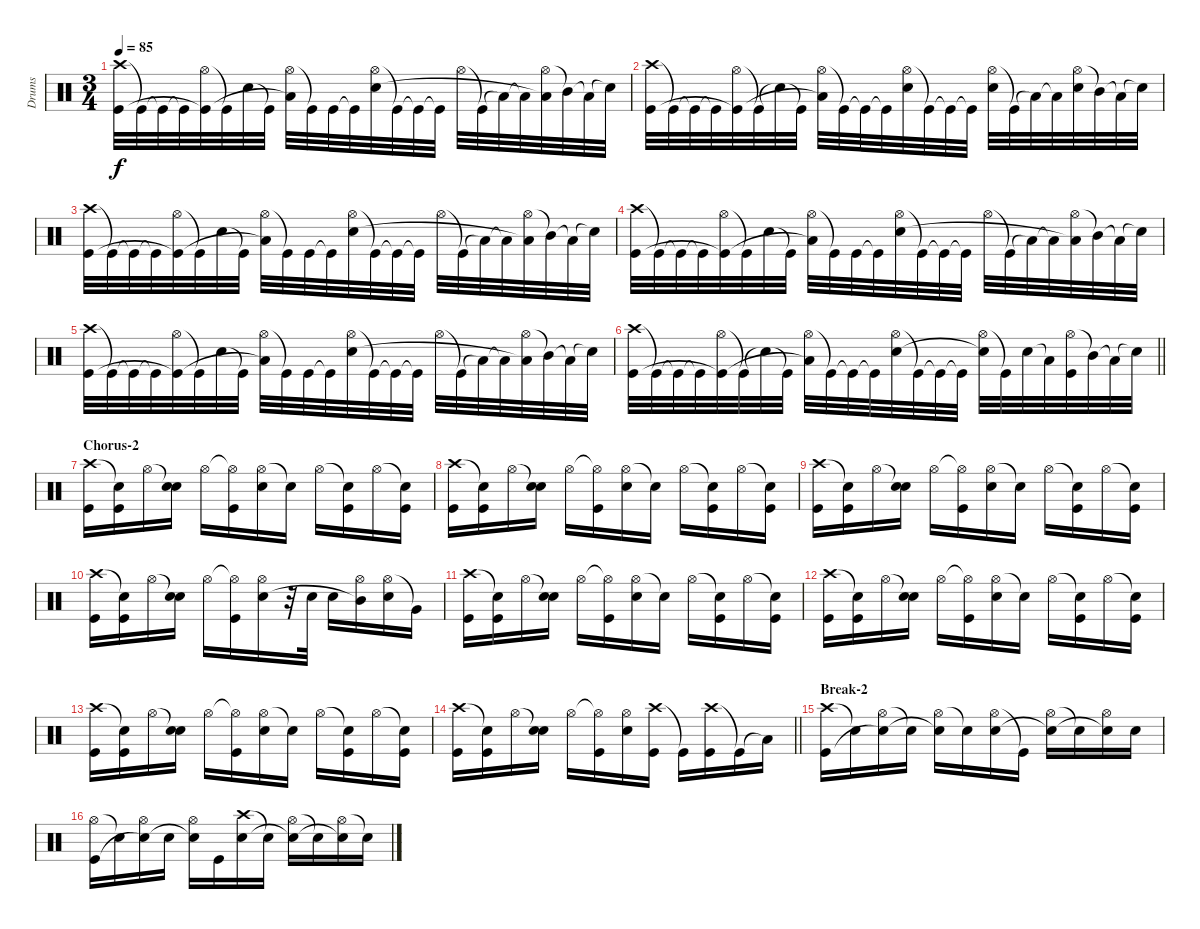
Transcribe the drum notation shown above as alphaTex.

\track ("Drums" "Drums") {instrument percussion}
\staff {score}
\articulation defaults
\ts (3 4)
\tempo 85
\clef neutral
\ks c
("Crash high (hit)" "Kick (hit)").32{dy f} "Kick (hit)"{t}.32 "Kick (hit)"{t}.32 "Kick (hit)"{t}.32 ("Hi-Hat (open)" "Kick (hit)"{t}).32 "Kick (hit)"{t}.32 "Electric Snare (hit)".32 "Kick (hit)"{t}.32 ("Hi-Hat (open)" "Low Floor Tom (hit)"{t}).32 "Kick (hit)"{t}.32 "Kick (hit)".32 "Kick (hit)"{t}.32 ("Hi-Hat (open)" "Electric Snare (hit)").32 "Kick (hit)"{t}.32 "Kick (hit)"{t}.32 "Kick (hit)"{t}.32 "Hi-Hat (open)".32 "Kick (hit)"{t}.32 "Low Floor Tom (hit)"{t}.32 "Low Floor Tom (hit)"{t}.32 ("Hi-Hat (open)" "Low Floor Tom (hit)"{t}).32 "Mid Tom (hit)"{t}.32 "Low Floor Tom (hit)"{t}.32 "Snare (hit)"{t}.32 |
("Crash high (hit)" "Kick (hit)").32 "Kick (hit)"{t}.32 "Kick (hit)"{t}.32 "Kick (hit)"{t}.32 ("Hi-Hat (open)" "Kick (hit)"{t}).32 "Kick (hit)"{t}.32 "Electric Snare (hit)"{t}.32 "Kick (hit)"{t}.32 ("Hi-Hat (open)" "Low Floor Tom (hit)"{t}).32 "Kick (hit)"{t}.32 "Kick (hit)"{t}.32 "Kick (hit)"{t}.32 ("Hi-Hat (open)" "Electric Snare (hit)").32 "Kick (hit)"{t}.32 "Kick (hit)"{t}.32 "Kick (hit)"{t}.32 ("Hi-Hat (open)" "Electric Snare (hit)").32 "Kick (hit)"{t}.32 "Low Floor Tom (hit)"{t}.32 "Low Floor Tom (hit)"{t}.32 ("Hi-Hat (open)" "Electric Snare (hit)").32 "Mid Tom (hit)"{t}.32 "Low Floor Tom (hit)"{t}.32 "Snare (hit)"{t}.32 |
("Crash high (hit)" "Kick (hit)").32 "Kick (hit)"{t}.32 "Kick (hit)"{t}.32 "Kick (hit)"{t}.32 ("Hi-Hat (open)" "Kick (hit)"{t}).32 "Kick (hit)"{t}.32 "Electric Snare (hit)".32 "Kick (hit)"{t}.32 ("Hi-Hat (open)" "Low Floor Tom (hit)"{t}).32 "Kick (hit)"{t}.32 "Kick (hit)".32 "Kick (hit)"{t}.32 ("Hi-Hat (open)" "Electric Snare (hit)").32 "Kick (hit)"{t}.32 "Kick (hit)"{t}.32 "Kick (hit)"{t}.32 "Hi-Hat (open)".32 "Kick (hit)"{t}.32 "Low Floor Tom (hit)"{t}.32 "Low Floor Tom (hit)"{t}.32 ("Hi-Hat (open)" "Low Floor Tom (hit)"{t}).32 "Mid Tom (hit)"{t}.32 "Low Floor Tom (hit)"{t}.32 "Snare (hit)"{t}.32 |
("Crash high (hit)" "Kick (hit)").32 "Kick (hit)"{t}.32 "Kick (hit)"{t}.32 "Kick (hit)"{t}.32 ("Hi-Hat (open)" "Kick (hit)"{t}).32 "Kick (hit)"{t}.32 "Electric Snare (hit)".32 "Kick (hit)"{t}.32 ("Hi-Hat (open)" "Low Floor Tom (hit)"{t}).32 "Kick (hit)"{t}.32 "Kick (hit)".32 "Kick (hit)"{t}.32 ("Hi-Hat (open)" "Electric Snare (hit)").32 "Kick (hit)"{t}.32 "Kick (hit)"{t}.32 "Kick (hit)"{t}.32 "Hi-Hat (open)".32 "Kick (hit)"{t}.32 "Low Floor Tom (hit)"{t}.32 "Low Floor Tom (hit)"{t}.32 ("Hi-Hat (open)" "Low Floor Tom (hit)"{t}).32 "Mid Tom (hit)"{t}.32 "Low Floor Tom (hit)"{t}.32 "Snare (hit)"{t}.32 |
("Crash high (hit)" "Kick (hit)").32 "Kick (hit)"{t}.32 "Kick (hit)"{t}.32 "Kick (hit)"{t}.32 ("Hi-Hat (open)" "Kick (hit)"{t}).32 "Kick (hit)"{t}.32 "Electric Snare (hit)".32 "Kick (hit)"{t}.32 ("Hi-Hat (open)" "Low Floor Tom (hit)"{t}).32 "Kick (hit)"{t}.32 "Kick (hit)".32 "Kick (hit)"{t}.32 ("Hi-Hat (open)" "Electric Snare (hit)").32 "Kick (hit)"{t}.32 "Kick (hit)"{t}.32 "Kick (hit)"{t}.32 "Hi-Hat (open)".32 "Kick (hit)"{t}.32 "Low Floor Tom (hit)"{t}.32 "Low Floor Tom (hit)"{t}.32 ("Hi-Hat (open)" "Low Floor Tom (hit)"{t}).32 "Mid Tom (hit)"{t}.32 "Low Floor Tom (hit)"{t}.32 "Snare (hit)"{t}.32 |
\barLineRight lightlight
("Crash high (hit)" "Kick (hit)").32 "Kick (hit)"{t}.32 "Kick (hit)"{t}.32 "Kick (hit)"{t}.32 ("Hi-Hat (open)" "Kick (hit)"{t}).32 "Kick (hit)"{t}.32 "Electric Snare (hit)"{t}.32 "Kick (hit)"{t}.32 ("Hi-Hat (open)" "Low Floor Tom (hit)"{t}).32 "Kick (hit)"{t}.32 "Kick (hit)"{t}.32 "Kick (hit)"{t}.32 ("Hi-Hat (open)" "Electric Snare (hit)").32 "Kick (hit)"{t}.32 "Kick (hit)"{t}.32 "Kick (hit)"{t}.32 ("Hi-Hat (open)" "Electric Snare (hit)"{t}).32 "Kick (hit)"{t}.32 "Electric Snare (hit)".32 "Low Floor Tom (hit)"{t}.32 ("Hi-Hat (open)" "Kick (hit)").32 "Mid Tom (hit)"{t}.32 "Low Floor Tom (hit)"{t}.32 "Snare (hit)"{t}.32 |
\section ("" "Chorus-2")
("Crash high (hit)" "Kick (hit)").16 ("Snare (hit)"{t} "Kick (hit)").16 "Hi-Hat (open)".16 ("Snare (hit)"{t} "Electric Snare (hit)").16 "Hi-Hat (open)".16 ("Hi-Hat (open)"{t} "Kick (hit)").16 ("Hi-Hat (open)" "Electric Snare (hit)").16 "Snare (hit)"{t}.16 "Hi-Hat (open)".16 ("Snare (hit)"{t} "Kick (hit)").16 "Hi-Hat (open)".16 ("Snare (hit)"{t} "Kick (hit)").16 |
("Crash high (hit)" "Kick (hit)").16 ("Snare (hit)"{t} "Kick (hit)").16 "Hi-Hat (open)".16 ("Snare (hit)"{t} "Electric Snare (hit)").16 "Hi-Hat (open)".16 ("Hi-Hat (open)"{t} "Kick (hit)").16 ("Hi-Hat (open)" "Electric Snare (hit)").16 "Snare (hit)"{t}.16 "Hi-Hat (open)".16 ("Snare (hit)"{t} "Kick (hit)").16 "Hi-Hat (open)".16 ("Snare (hit)"{t} "Kick (hit)").16 |
("Crash high (hit)" "Kick (hit)").16 ("Snare (hit)"{t} "Kick (hit)").16 "Hi-Hat (open)".16 ("Snare (hit)"{t} "Electric Snare (hit)").16 "Hi-Hat (open)".16 ("Hi-Hat (open)"{t} "Kick (hit)").16 ("Hi-Hat (open)" "Electric Snare (hit)").16 "Snare (hit)"{t}.16 "Hi-Hat (open)".16 ("Snare (hit)"{t} "Kick (hit)").16 "Hi-Hat (open)".16 ("Snare (hit)"{t} "Kick (hit)").16 |
("Crash high (hit)" "Kick (hit)").16 ("Snare (hit)"{t} "Kick (hit)").16 "Hi-Hat (open)".16 ("Snare (hit)"{t} "Electric Snare (hit)").16 "Hi-Hat (open)".16 ("Hi-Hat (open)"{t} "Kick (hit)").16 ("Hi-Hat (open)" "Electric Snare (hit)").16 r.32 "Electric Snare (hit)".32 "Electric Snare (hit)".16 ("Hi-Hat (open)" "Mid Tom (hit)"{t}).16 ("Hi-Hat (open)" "Electric Snare (hit)").16 "Very Low Tom (hit)"{t}.16 |
("Crash high (hit)" "Kick (hit)").16 ("Snare (hit)"{t} "Kick (hit)").16 "Hi-Hat (open)".16 ("Snare (hit)"{t} "Electric Snare (hit)").16 "Hi-Hat (open)".16 ("Hi-Hat (open)"{t} "Kick (hit)").16 ("Hi-Hat (open)" "Electric Snare (hit)").16 "Snare (hit)"{t}.16 "Hi-Hat (open)".16 ("Snare (hit)"{t} "Kick (hit)").16 "Hi-Hat (open)".16 ("Snare (hit)"{t} "Kick (hit)").16 |
("Crash high (hit)" "Kick (hit)").16 ("Snare (hit)"{t} "Kick (hit)").16 "Hi-Hat (open)".16 ("Snare (hit)"{t} "Electric Snare (hit)").16 "Hi-Hat (open)".16 ("Hi-Hat (open)"{t} "Kick (hit)").16 ("Hi-Hat (open)" "Electric Snare (hit)").16 "Snare (hit)"{t}.16 "Hi-Hat (open)".16 ("Snare (hit)"{t} "Kick (hit)").16 "Hi-Hat (open)".16 ("Snare (hit)"{t} "Kick (hit)").16 |
("Crash high (hit)" "Kick (hit)").16 ("Snare (hit)"{t} "Kick (hit)").16 "Hi-Hat (open)".16 ("Snare (hit)"{t} "Electric Snare (hit)").16 "Hi-Hat (open)".16 ("Hi-Hat (open)"{t} "Kick (hit)").16 ("Hi-Hat (open)" "Electric Snare (hit)").16 "Snare (hit)"{t}.16 "Hi-Hat (open)".16 ("Snare (hit)"{t} "Kick (hit)").16 "Hi-Hat (open)".16 ("Snare (hit)"{t} "Kick (hit)").16 |
\barLineRight lightlight
("Crash high (hit)" "Kick (hit)").16 ("Snare (hit)"{t} "Kick (hit)").16 "Hi-Hat (open)".16 ("Snare (hit)"{t} "Electric Snare (hit)").16 "Hi-Hat (open)".16 ("Hi-Hat (open)"{t} "Kick (hit)").16 ("Hi-Hat (open)" "Electric Snare (hit)").16 ("Crash high (hit)" "Kick (hit)").16 "Kick (hit)"{t}.16 ("Crash high (hit)" "Kick (hit)").16 "Kick (hit)"{t}.16 "Low Floor Tom (hit)"{t}.16 |
\section ("" "Break-2")
("Crash high (hit)" "Kick (hit)").16 "Snare (hit)"{t}.16 ("Hi-Hat (open)" "Snare (hit)"{t}).16 "Snare (hit)"{t}.16 ("Hi-Hat (open)" "Snare (hit)"{t}).16 "Snare (hit)"{t}.16 ("Hi-Hat (open)" "Electric Snare (hit)").16 "Kick (hit)"{t}.16 ("Hi-Hat (open)" "Snare (hit)"{t}).16 "Snare (hit)"{t}.16 ("Hi-Hat (open)" "Snare (hit)"{t}).16 "Electric Snare (hit)".16 |
("Hi-Hat (open)" "Kick (hit)").16 "Snare (hit)"{t}.16 ("Hi-Hat (open)" "Snare (hit)"{t}).16 "Electric Snare (hit)".16 ("Hi-Hat (open)" "Snare (hit)"{t}).16 "Kick (hit)".16 ("Crash high (hit)" "Electric Snare (hit)").16 "Snare (hit)"{t}.16 ("Hi-Hat (open)" "Snare (hit)"{t}).16 "Snare (hit)"{t}.16 ("Hi-Hat (open)" "Snare (hit)"{t}).16 "Snare (hit)"{t}.16
